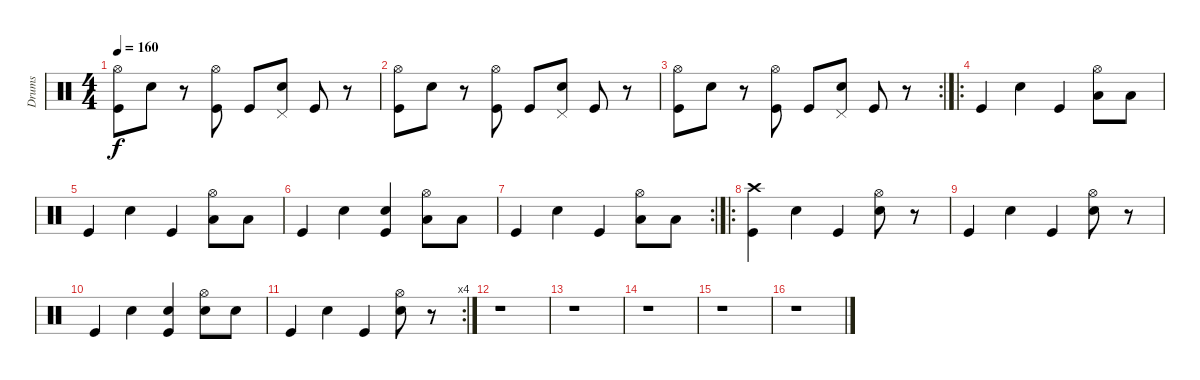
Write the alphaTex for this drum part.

\track ("Drums" "Drums") {instrument percussion}
\staff {score}
\articulation defaults
\ts (4 4)
\tempo 160
\clef neutral
\ks c
("Hi-Hat (open)" "Kick (hit)").8{dy f} "Snare (hit) 2".8 r.8 ("Hi-Hat (open)" "Kick (hit)").8 "Kick (hit)".8 ("Pedal Hi-Hat (hit)" "Snare (hit) 2").8 "Kick (hit)".8 r.8 |
("Hi-Hat (open)" "Kick (hit)").8 "Snare (hit) 2".8 r.8 ("Hi-Hat (open)" "Kick (hit)").8 "Kick (hit)".8 ("Pedal Hi-Hat (hit)" "Snare (hit) 2").8 "Kick (hit)".8 r.8 |
\rc 2
("Hi-Hat (open)" "Kick (hit)").8 "Snare (hit) 2".8 r.8 ("Hi-Hat (open)" "Kick (hit)").8 "Kick (hit)".8 ("Pedal Hi-Hat (hit)" "Snare (hit) 2").8 "Kick (hit)".8 r.8 |
\ro "Kick (hit)".4 "Snare (hit) 2".4 "Kick (hit)".4
("Hi-Hat (open)" "Low Floor Tom (hit)").8 "Low Floor Tom (hit)".8 |
"Kick (hit)".4 "Snare (hit) 2".4 "Kick (hit)".4 ("Hi-Hat (open)" "Low Floor Tom (hit)").8 "Low Floor Tom (hit)".8 |
"Kick (hit)".4 "Snare (hit) 2".4 ("Snare (hit) 2" "Kick (hit)").4 ("Hi-Hat (open)" "Low Floor Tom (hit)").8 "Low Floor Tom (hit)".8 |
\rc 2 "Kick (hit)".4 "Snare (hit) 2".4 "Kick (hit)".4
("Hi-Hat (open)" "Low Floor Tom (hit)").8 "Low Floor Tom (hit)".8 |
\ro
("Crash high (hit)" "Kick (hit)").4 "Snare (hit) 2".4 "Kick (hit)".4 ("Hi-Hat (open)" "Snare (hit) 2").8 r.8 |
"Kick (hit)".4 "Snare (hit) 2".4 "Kick (hit)".4 ("Hi-Hat (open)" "Snare (hit) 2").8 r.8 |
"Kick (hit)".4 "Snare (hit) 2".4 ("Snare (hit) 2" "Kick (hit)").4 ("Hi-Hat (open)" "Snare (hit) 2").8 "Snare (hit) 2".8 |
\rc 4 "Kick (hit)".4 "Snare (hit) 2".4 "Kick (hit)".4
("Hi-Hat (open)" "Snare (hit) 2").8 r.8 |
r.1 |
r.1 |
r.1 |
r.1 |
r.1
